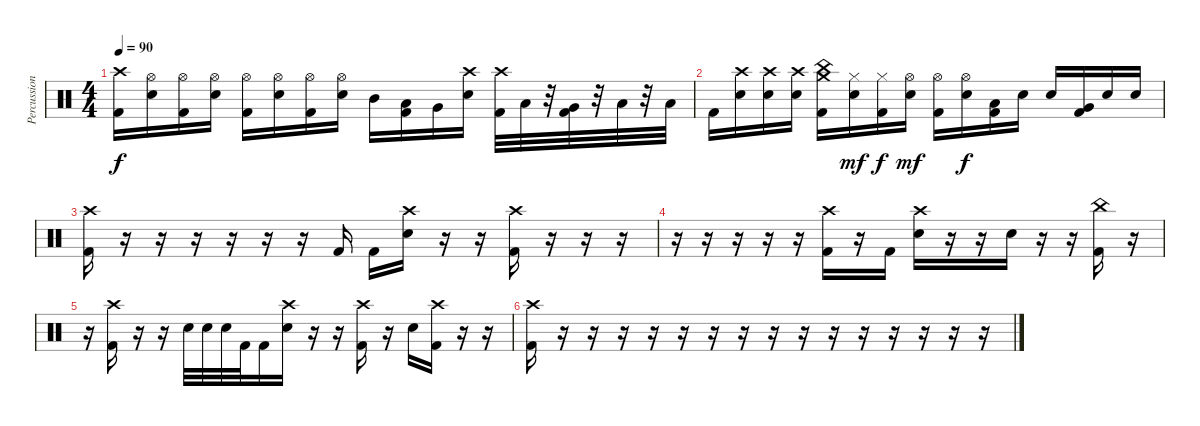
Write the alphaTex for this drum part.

\track ("Percussion" "Percussion") {instrument percussion}
\staff {score}
\articulation defaults
\ts (4 4)
\tempo 90
\clef neutral
\ks c
("Crash high (hit)" "Kick (hit) 2").16{dy f} ("Hi-Hat (open)" "Snare (hit) 2").16 ("Hi-Hat (open)" "Kick (hit) 2").16 ("Hi-Hat (open)" "Snare (hit) 2").16 ("Hi-Hat (open)" "Kick (hit) 2").16 ("Hi-Hat (open)" "Snare (hit) 2").16 ("Hi-Hat (open)" "Kick (hit) 2").16 ("Hi-Hat (open)" "Snare (hit) 2").16 "Mid Tom (hit)".16 ("Low Tom (hit)" "Kick (hit) 2").16 "Very Low Tom (hit)".16 ("Crash high (hit)" "Snare (hit) 2").16 ("Crash high (hit)" "Kick (hit) 2").32 "Low Tom (hit)".32 r.32 ("Very Low Tom (hit)" "Kick (hit) 2").32 r.32 "Low Floor Tom (hit)".32 r.32 "Low Floor Tom (hit)".32 |
"Kick (hit) 2".16 ("Crash high (hit)" "Snare (hit) 2").16 ("Crash high (hit)" "Snare (hit) 2").16 ("Crash high (hit)" "Snare (hit) 2").16 ("Crash medium (hit)" "China (hit)" "Kick (hit) 2").16 ("Hi-Hat (closed)" "Snare (hit) 2").16{dy mf} ("Hi-Hat (closed)" "Kick (hit) 2").16{dy f} ("Hi-Hat (open)" "Snare (hit) 2").16{dy mf} ("Hi-Hat (open)" "Kick (hit) 2").16 ("Hi-Hat (open)" "Snare (hit) 2").16{dy f} ("Low Tom (hit)" "Kick (hit) 2").16 "Snare (hit) 2".16 "Snare (hit) 2".16 ("Very Low Tom (hit)" "Kick (hit) 2").16 "Snare (hit) 2".16 "Snare (hit) 2".16 |
("Crash high (hit)" "Kick (hit) 2").16 r.16 r.16 r.16 r.16 r.16 r.16 "Kick (hit) 2".16 "Kick (hit) 2".16 ("Crash high (hit)" "Snare (hit) 2").16 r.16 r.16 ("Crash high (hit)" "Kick (hit) 2").16 r.16 r.16 r.16 |
r.16 r.16 r.16 r.16 r.16 ("Crash high (hit)" "Kick (hit) 2").16 r.16 "Kick (hit) 2".16 ("Crash high (hit)" "Snare (hit) 2").16 r.16 r.16 "Snare (hit) 2".16 r.16 r.16 ("China (hit)" "Kick (hit) 2").16 r.16 |
r.16 ("Crash high (hit)" "Kick (hit) 2").16 r.16 r.16 "Snare (hit) 2".32 "Snare (hit) 2".32 "Snare (hit) 2".32 "Kick (hit) 2".32 "Kick (hit) 2".16 ("Crash high (hit)" "Snare (hit) 2").16 r.16 r.16 ("Crash high (hit)" "Kick (hit) 2").16 r.16 "Snare (hit) 2".16 ("Crash high (hit)" "Kick (hit) 2").16 r.16 r.16 |
("Crash high (hit)" "Kick (hit) 2").16 r.16 r.16 r.16 r.16 r.16 r.16 r.16 r.16 r.16 r.16 r.16 r.16 r.16 r.16 r.16
